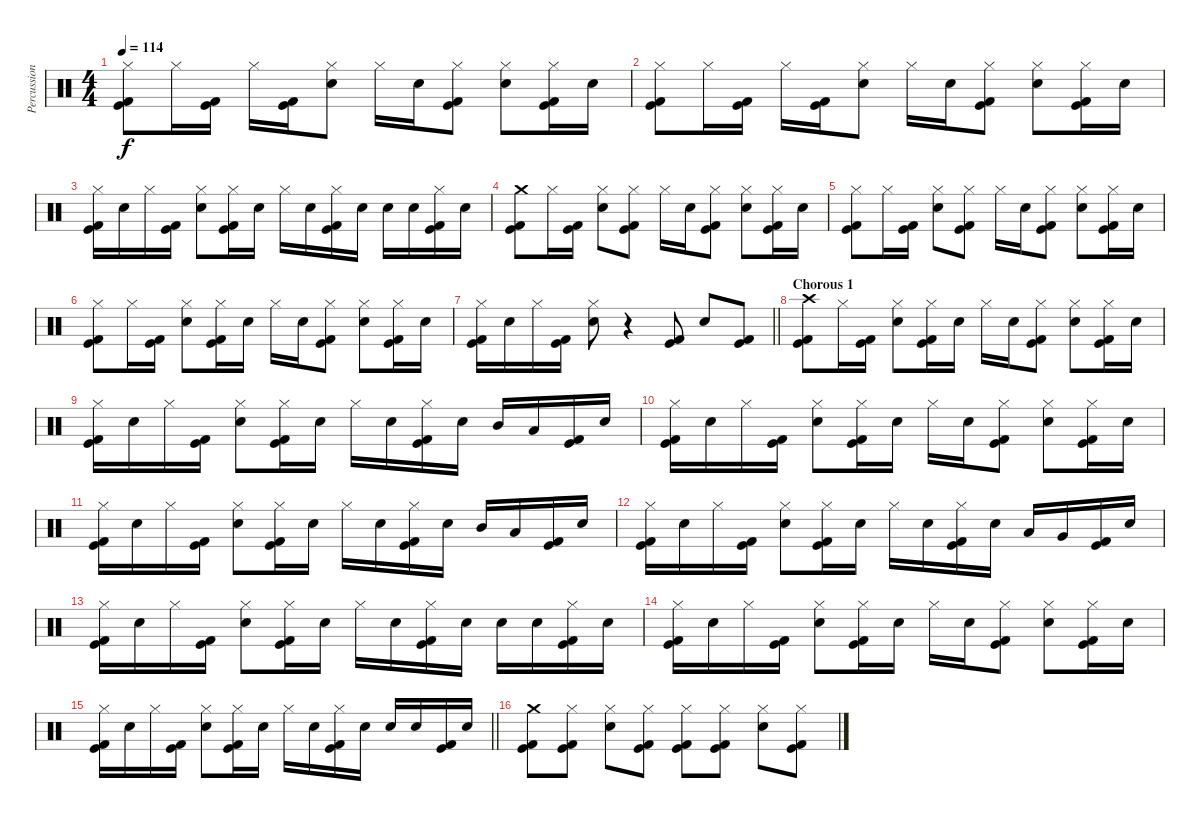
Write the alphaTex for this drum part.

\track ("Percussion" "Percussion") {instrument percussion}
\staff {score}
\articulation defaults
\ts (4 4)
\tempo 114
\clef neutral
\ks c
("Hi-Hat (closed)" "Kick (hit)" "Kick (hit) 2").8{dy f} "Hi-Hat (closed)".16 ("Kick (hit)" "Kick (hit) 2").16 "Hi-Hat (closed)".16 ("Kick (hit)" "Kick (hit) 2").16 ("Hi-Hat (closed)" "Electric Snare (hit)").8 "Hi-Hat (closed)".16 "Electric Snare (hit)".16 ("Hi-Hat (closed)" "Kick (hit)" "Kick (hit) 2").8 ("Hi-Hat (closed)" "Electric Snare (hit)").8 ("Hi-Hat (closed)" "Kick (hit)" "Kick (hit) 2").16 "Electric Snare (hit)".16 |
("Hi-Hat (closed)" "Kick (hit)" "Kick (hit) 2").8 "Hi-Hat (closed)".16 ("Kick (hit)" "Kick (hit) 2").16 "Hi-Hat (closed)".16 ("Kick (hit)" "Kick (hit) 2").16 ("Hi-Hat (closed)" "Electric Snare (hit)").8 "Hi-Hat (closed)".16 "Electric Snare (hit)".16 ("Hi-Hat (closed)" "Kick (hit)" "Kick (hit) 2").8 ("Hi-Hat (closed)" "Electric Snare (hit)").8 ("Hi-Hat (closed)" "Kick (hit)" "Kick (hit) 2").16 "Electric Snare (hit)".16 |
("Hi-Hat (closed)" "Kick (hit)" "Kick (hit) 2").16 "Electric Snare (hit)".16 "Hi-Hat (closed)".16 ("Kick (hit)" "Kick (hit) 2").16 ("Hi-Hat (closed)" "Electric Snare (hit)").8 ("Hi-Hat (closed)" "Kick (hit)" "Kick (hit) 2").16 "Electric Snare (hit)".16 "Hi-Hat (closed)".16 "Electric Snare (hit)".16 ("Hi-Hat (closed)" "Kick (hit)" "Kick (hit) 2").16 "Electric Snare (hit)".16 "Electric Snare (hit)".16 "Electric Snare (hit)".16 ("Hi-Hat (closed)" "Kick (hit)" "Kick (hit) 2").16 "Electric Snare (hit)".16 |
("Crash medium (hit)" "Kick (hit)" "Kick (hit) 2").8 "Hi-Hat (closed)".16 ("Kick (hit)" "Kick (hit) 2").16 ("Hi-Hat (closed)" "Electric Snare (hit)").8 ("Hi-Hat (closed)" "Kick (hit)" "Kick (hit) 2").8 "Hi-Hat (closed)".16 "Electric Snare (hit)".16 ("Hi-Hat (closed)" "Kick (hit)" "Kick (hit) 2").8 ("Hi-Hat (closed)" "Electric Snare (hit)").8 ("Hi-Hat (closed)" "Kick (hit)" "Kick (hit) 2").16 "Electric Snare (hit)".16 |
("Hi-Hat (closed)" "Kick (hit)" "Kick (hit) 2").8 "Hi-Hat (closed)".16 ("Kick (hit)" "Kick (hit) 2").16 ("Hi-Hat (closed)" "Electric Snare (hit)").8 ("Hi-Hat (closed)" "Kick (hit)" "Kick (hit) 2").8 "Hi-Hat (closed)".16 "Electric Snare (hit)".16 ("Hi-Hat (closed)" "Kick (hit)" "Kick (hit) 2").8 ("Hi-Hat (closed)" "Electric Snare (hit)").8 ("Hi-Hat (closed)" "Kick (hit)" "Kick (hit) 2").16 "Electric Snare (hit)".16 |
("Hi-Hat (closed)" "Kick (hit)" "Kick (hit) 2").8 "Hi-Hat (closed)".16 ("Kick (hit)" "Kick (hit) 2").16 ("Hi-Hat (closed)" "Electric Snare (hit)").8 ("Hi-Hat (closed)" "Kick (hit)" "Kick (hit) 2").16 "Electric Snare (hit)".16 "Hi-Hat (closed)".16 "Electric Snare (hit)".16 ("Hi-Hat (closed)" "Kick (hit)" "Kick (hit) 2").8 ("Hi-Hat (closed)" "Electric Snare (hit)").8 ("Hi-Hat (closed)" "Kick (hit)" "Kick (hit) 2").16 "Electric Snare (hit)".16 |
\barLineRight lightlight
("Hi-Hat (closed)" "Kick (hit)" "Kick (hit) 2").16 "Electric Snare (hit)".16 "Hi-Hat (closed)".16 ("Kick (hit)" "Kick (hit) 2").16 ("Hi-Hat (closed)" "Electric Snare (hit)").8 r.4 ("Kick (hit)" "Kick (hit) 2").8 "Electric Snare (hit)".8 ("Kick (hit)" "Kick (hit) 2").8 |
\section ("" "Chorous 1")
("Crash high (hit)" "Kick (hit)" "Kick (hit) 2").8 "Hi-Hat (closed)".16 ("Kick (hit)" "Kick (hit) 2").16 ("Hi-Hat (closed)" "Electric Snare (hit)").8 ("Hi-Hat (closed)" "Kick (hit)" "Kick (hit) 2").16 "Electric Snare (hit)".16 "Hi-Hat (closed)".16 "Electric Snare (hit)".16 ("Hi-Hat (closed)" "Kick (hit)" "Kick (hit) 2").8 ("Hi-Hat (closed)" "Electric Snare (hit)").8 ("Hi-Hat (closed)" "Kick (hit)" "Kick (hit) 2").16 "Electric Snare (hit)".16 |
("Hi-Hat (closed)" "Kick (hit)" "Kick (hit) 2").16 "Electric Snare (hit)".16 "Hi-Hat (closed)".16 ("Kick (hit)" "Kick (hit) 2").16 ("Hi-Hat (closed)" "Electric Snare (hit)").8 ("Hi-Hat (closed)" "Kick (hit)" "Kick (hit) 2").16 "Electric Snare (hit)".16 "Hi-Hat (closed)".16 "Electric Snare (hit)".16 ("Hi-Hat (closed)" "Kick (hit)" "Kick (hit) 2").16 "Electric Snare (hit)".16 "Mid Tom (hit)".16 "Low Tom (hit)".16 ("Kick (hit)" "Kick (hit) 2").16 "Electric Snare (hit)".16 |
("Hi-Hat (closed)" "Kick (hit)" "Kick (hit) 2").16 "Electric Snare (hit)".16 "Hi-Hat (closed)".16 ("Kick (hit)" "Kick (hit) 2").16 ("Hi-Hat (closed)" "Electric Snare (hit)").8 ("Hi-Hat (closed)" "Kick (hit)" "Kick (hit) 2").16 "Electric Snare (hit)".16 "Hi-Hat (closed)".16 "Electric Snare (hit)".16 ("Hi-Hat (closed)" "Kick (hit)" "Kick (hit) 2").8 ("Hi-Hat (closed)" "Electric Snare (hit)").8 ("Hi-Hat (closed)" "Kick (hit)" "Kick (hit) 2").16 "Electric Snare (hit)".16 |
("Hi-Hat (closed)" "Kick (hit)" "Kick (hit) 2").16 "Electric Snare (hit)".16 "Hi-Hat (closed)".16 ("Kick (hit)" "Kick (hit) 2").16 ("Hi-Hat (closed)" "Electric Snare (hit)").8 ("Hi-Hat (closed)" "Kick (hit)" "Kick (hit) 2").16 "Electric Snare (hit)".16 "Hi-Hat (closed)".16 "Electric Snare (hit)".16 ("Hi-Hat (closed)" "Kick (hit)" "Kick (hit) 2").16 "Electric Snare (hit)".16 "Mid Tom (hit)".16 "Low Tom (hit)".16 ("Kick (hit)" "Kick (hit) 2").16 "Electric Snare (hit)".16 |
("Hi-Hat (closed)" "Kick (hit)" "Kick (hit) 2").16 "Electric Snare (hit)".16 "Hi-Hat (closed)".16 ("Kick (hit)" "Kick (hit) 2").16 ("Hi-Hat (closed)" "Electric Snare (hit)").8 ("Hi-Hat (closed)" "Kick (hit)" "Kick (hit) 2").16 "Electric Snare (hit)".16 "Hi-Hat (closed)".16 "Electric Snare (hit)".16 ("Hi-Hat (closed)" "Kick (hit)" "Kick (hit) 2").16 "Electric Snare (hit)".16 "Low Tom (hit)".16 "Very Low Tom (hit)".16 ("Kick (hit)" "Kick (hit) 2").16 "Electric Snare (hit)".16 |
("Hi-Hat (closed)" "Kick (hit)" "Kick (hit) 2").16 "Electric Snare (hit)".16 "Hi-Hat (closed)".16 ("Kick (hit)" "Kick (hit) 2").16 ("Hi-Hat (closed)" "Electric Snare (hit)").8 ("Hi-Hat (closed)" "Kick (hit)" "Kick (hit) 2").16 "Electric Snare (hit)".16 "Hi-Hat (closed)".16 "Electric Snare (hit)".16 ("Hi-Hat (closed)" "Kick (hit)" "Kick (hit) 2").16 "Electric Snare (hit)".16 "Electric Snare (hit)".16 "Electric Snare (hit)".16 ("Hi-Hat (closed)" "Kick (hit)" "Kick (hit) 2").16 "Electric Snare (hit)".16 |
("Hi-Hat (closed)" "Kick (hit)" "Kick (hit) 2").16 "Electric Snare (hit)".16 "Hi-Hat (closed)".16 ("Kick (hit)" "Kick (hit) 2").16 ("Hi-Hat (closed)" "Electric Snare (hit)").8 ("Hi-Hat (closed)" "Kick (hit)" "Kick (hit) 2").16 "Electric Snare (hit)".16 "Hi-Hat (closed)".16 "Electric Snare (hit)".16 ("Hi-Hat (closed)" "Kick (hit)" "Kick (hit) 2").8 ("Hi-Hat (closed)" "Electric Snare (hit)").8 ("Hi-Hat (closed)" "Kick (hit)" "Kick (hit) 2").16 "Electric Snare (hit)".16 |
\barLineRight lightlight
("Hi-Hat (closed)" "Kick (hit)" "Kick (hit) 2").16 "Electric Snare (hit)".16 "Hi-Hat (closed)".16 ("Kick (hit)" "Kick (hit) 2").16 ("Hi-Hat (closed)" "Electric Snare (hit)").8 ("Hi-Hat (closed)" "Kick (hit)" "Kick (hit) 2").16 "Electric Snare (hit)".16 "Hi-Hat (closed)".16 "Electric Snare (hit)".16 ("Hi-Hat (closed)" "Kick (hit)" "Kick (hit) 2").16 "Electric Snare (hit)".16 "Electric Snare (hit)".16 "Electric Snare (hit)".16 ("Kick (hit)" "Kick (hit) 2").16 "Electric Snare (hit)".16 |
\section ("" "")
("Crash medium (hit)" "Kick (hit)" "Kick (hit) 2").8 ("Hi-Hat (closed)" "Kick (hit)" "Kick (hit) 2").8 ("Hi-Hat (closed)" "Electric Snare (hit)").8 ("Hi-Hat (closed)" "Kick (hit)" "Kick (hit) 2").8 ("Hi-Hat (closed)" "Kick (hit)" "Kick (hit) 2").8 ("Hi-Hat (closed)" "Kick (hit)" "Kick (hit) 2").8 ("Hi-Hat (closed)" "Electric Snare (hit)").8 ("Hi-Hat (closed)" "Kick (hit)" "Kick (hit) 2").8
